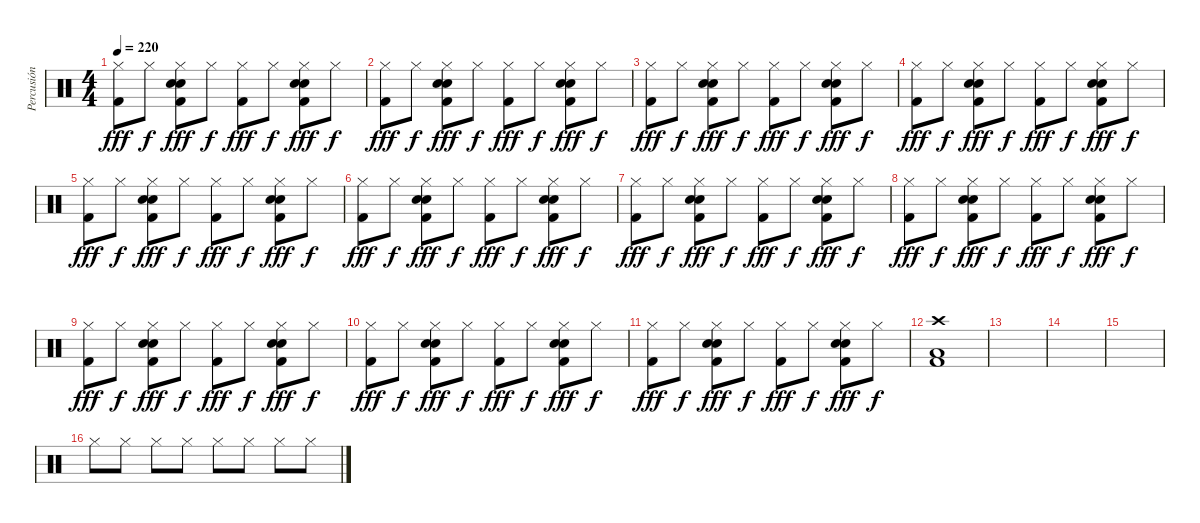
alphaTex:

\track ("Percusión" "Percusión") {instrument percussion}
\staff {score}
\articulation defaults
\ts (4 4)
\tempo 220
\clef neutral
\ks c
("Hi-Hat (closed)" "Kick (hit) 2").8{dy fff} "Hi-Hat (closed)".8{dy f} ("Hi-Hat (closed)" "Electric Snare (hit)" "Snare (hit) 2" "Kick (hit) 2").8{dy fff} "Hi-Hat (closed)".8{dy f} ("Hi-Hat (closed)" "Kick (hit) 2").8{dy fff} "Hi-Hat (closed)".8{dy f} ("Hi-Hat (closed)" "Electric Snare (hit)" "Snare (hit) 2" "Kick (hit) 2").8{dy fff} "Hi-Hat (closed)".8{dy f} |
("Hi-Hat (closed)" "Kick (hit) 2").8{dy fff} "Hi-Hat (closed)".8{dy f} ("Hi-Hat (closed)" "Electric Snare (hit)" "Snare (hit) 2" "Kick (hit) 2").8{dy fff} "Hi-Hat (closed)".8{dy f} ("Hi-Hat (closed)" "Kick (hit) 2").8{dy fff} "Hi-Hat (closed)".8{dy f} ("Hi-Hat (closed)" "Electric Snare (hit)" "Snare (hit) 2" "Kick (hit) 2").8{dy fff} "Hi-Hat (closed)".8{dy f} |
("Hi-Hat (closed)" "Kick (hit) 2").8{dy fff} "Hi-Hat (closed)".8{dy f} ("Hi-Hat (closed)" "Electric Snare (hit)" "Snare (hit) 2" "Kick (hit) 2").8{dy fff} "Hi-Hat (closed)".8{dy f} ("Hi-Hat (closed)" "Kick (hit) 2").8{dy fff} "Hi-Hat (closed)".8{dy f} ("Hi-Hat (closed)" "Electric Snare (hit)" "Snare (hit) 2" "Kick (hit) 2").8{dy fff} "Hi-Hat (closed)".8{dy f} |
("Hi-Hat (closed)" "Kick (hit) 2").8{dy fff} "Hi-Hat (closed)".8{dy f} ("Hi-Hat (closed)" "Electric Snare (hit)" "Snare (hit) 2" "Kick (hit) 2").8{dy fff} "Hi-Hat (closed)".8{dy f} ("Hi-Hat (closed)" "Kick (hit) 2").8{dy fff} "Hi-Hat (closed)".8{dy f} ("Hi-Hat (closed)" "Electric Snare (hit)" "Snare (hit) 2" "Kick (hit) 2").8{dy fff} "Hi-Hat (closed)".8{dy f} |
("Hi-Hat (closed)" "Kick (hit) 2").8{dy fff} "Hi-Hat (closed)".8{dy f} ("Hi-Hat (closed)" "Electric Snare (hit)" "Snare (hit) 2" "Kick (hit) 2").8{dy fff} "Hi-Hat (closed)".8{dy f} ("Hi-Hat (closed)" "Kick (hit) 2").8{dy fff} "Hi-Hat (closed)".8{dy f} ("Hi-Hat (closed)" "Electric Snare (hit)" "Snare (hit) 2" "Kick (hit) 2").8{dy fff} "Hi-Hat (closed)".8{dy f} |
("Hi-Hat (closed)" "Kick (hit) 2").8{dy fff} "Hi-Hat (closed)".8{dy f} ("Hi-Hat (closed)" "Electric Snare (hit)" "Snare (hit) 2" "Kick (hit) 2").8{dy fff} "Hi-Hat (closed)".8{dy f} ("Hi-Hat (closed)" "Kick (hit) 2").8{dy fff} "Hi-Hat (closed)".8{dy f} ("Hi-Hat (closed)" "Electric Snare (hit)" "Snare (hit) 2" "Kick (hit) 2").8{dy fff} "Hi-Hat (closed)".8{dy f} |
("Hi-Hat (closed)" "Kick (hit) 2").8{dy fff} "Hi-Hat (closed)".8{dy f} ("Hi-Hat (closed)" "Electric Snare (hit)" "Snare (hit) 2" "Kick (hit) 2").8{dy fff} "Hi-Hat (closed)".8{dy f} ("Hi-Hat (closed)" "Kick (hit) 2").8{dy fff} "Hi-Hat (closed)".8{dy f} ("Hi-Hat (closed)" "Electric Snare (hit)" "Snare (hit) 2" "Kick (hit) 2").8{dy fff} "Hi-Hat (closed)".8{dy f} |
("Hi-Hat (closed)" "Kick (hit) 2").8{dy fff} "Hi-Hat (closed)".8{dy f} ("Hi-Hat (closed)" "Electric Snare (hit)" "Snare (hit) 2" "Kick (hit) 2").8{dy fff} "Hi-Hat (closed)".8{dy f} ("Hi-Hat (closed)" "Kick (hit) 2").8{dy fff} "Hi-Hat (closed)".8{dy f} ("Hi-Hat (closed)" "Electric Snare (hit)" "Snare (hit) 2" "Kick (hit) 2").8{dy fff} "Hi-Hat (closed)".8{dy f} |
("Hi-Hat (closed)" "Kick (hit) 2").8{dy fff} "Hi-Hat (closed)".8{dy f} ("Hi-Hat (closed)" "Electric Snare (hit)" "Snare (hit) 2" "Kick (hit) 2").8{dy fff} "Hi-Hat (closed)".8{dy f} ("Hi-Hat (closed)" "Kick (hit) 2").8{dy fff} "Hi-Hat (closed)".8{dy f} ("Hi-Hat (closed)" "Electric Snare (hit)" "Snare (hit) 2" "Kick (hit) 2").8{dy fff} "Hi-Hat (closed)".8{dy f} |
("Hi-Hat (closed)" "Kick (hit) 2").8{dy fff} "Hi-Hat (closed)".8{dy f} ("Hi-Hat (closed)" "Electric Snare (hit)" "Snare (hit) 2" "Kick (hit) 2").8{dy fff} "Hi-Hat (closed)".8{dy f} ("Hi-Hat (closed)" "Kick (hit) 2").8{dy fff} "Hi-Hat (closed)".8{dy f} ("Hi-Hat (closed)" "Electric Snare (hit)" "Snare (hit) 2" "Kick (hit) 2").8{dy fff} "Hi-Hat (closed)".8{dy f} |
("Hi-Hat (closed)" "Kick (hit) 2").8{dy fff} "Hi-Hat (closed)".8{dy f} ("Hi-Hat (closed)" "Electric Snare (hit)" "Snare (hit) 2" "Kick (hit) 2").8{dy fff} "Hi-Hat (closed)".8{dy f} ("Hi-Hat (closed)" "Kick (hit) 2").8{dy fff} "Hi-Hat (closed)".8{dy f} ("Hi-Hat (closed)" "Electric Snare (hit)" "Snare (hit) 2" "Kick (hit) 2").8{dy fff} "Hi-Hat (closed)".8{dy f} |
("Crash high (hit)" "Kick (hit) 2" "Low Tom (hit)").1 |
|
|
|
"Hi-Hat (closed)".8 "Hi-Hat (closed)".8 "Hi-Hat (closed)".8 "Hi-Hat (closed)".8 "Hi-Hat (closed)".8 "Hi-Hat (closed)".8 "Hi-Hat (closed)".8 "Hi-Hat (closed)".8
